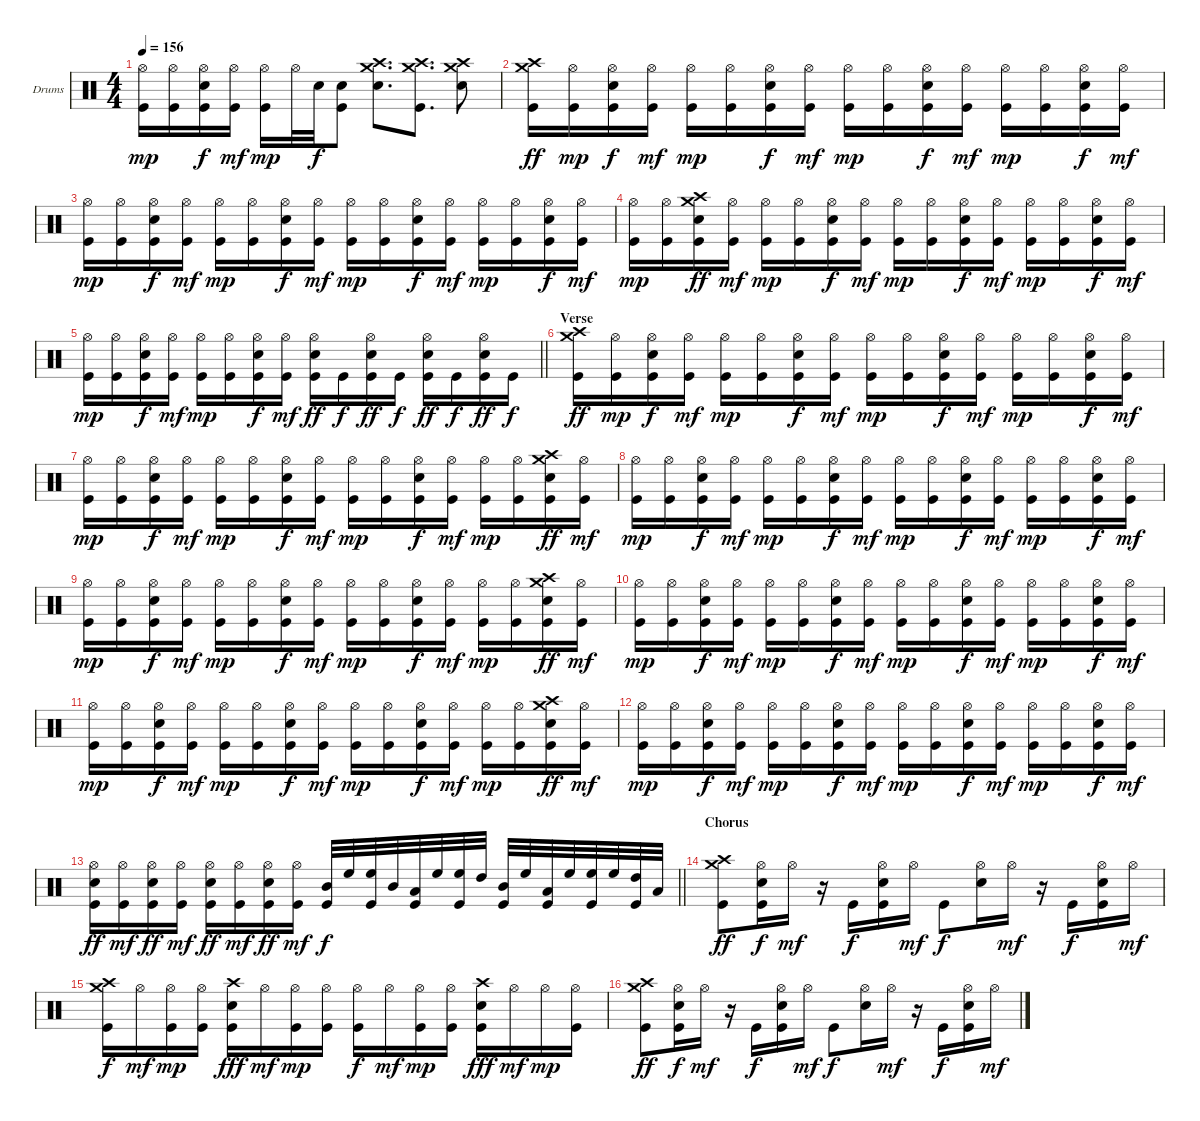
\bracketExtendMode groupsimilarinstruments
\firstSystemTrackNameOrientation horizontal
\otherSystemsTrackNameOrientation horizontal
\track ("Drums" "Drums") {instrument percussion}
\staff {score}
\articulation defaults
\ts (4 4)
\tempo 156
\clef neutral
\ks c
("Hi-Hat (open)" "Kick (hit)").16{dy mp} ("Hi-Hat (open)" "Kick (hit)").16 ("Hi-Hat (open)" "Snare (hit) 2" "Kick (hit)").16{dy f} ("Hi-Hat (open)" "Kick (hit)").16{dy mf} ("Hi-Hat (open)" "Kick (hit)").16{dy mp} "Hi-Hat (open)".32 "Snare (hit) 2".32{dy f} ("Snare (hit) 2" "Kick (hit)").8 ("Crash medium (hit)" "Crash high (hit)" "Snare (hit) 2").8{d} ("Crash medium (hit)" "Crash high (hit)" "Kick (hit)").8{d} ("Crash medium (hit)" "Crash high (hit)" "Snare (hit) 2").8 |
("Crash medium (hit)" "Crash high (hit)" "Kick (hit)").16{dy ff} ("Hi-Hat (open)" "Kick (hit)").16{dy mp} ("Hi-Hat (open)" "Snare (hit) 2" "Kick (hit)").16{dy f} ("Hi-Hat (open)" "Kick (hit)").16{dy mf} ("Hi-Hat (open)" "Kick (hit)").16{dy mp} ("Hi-Hat (open)" "Kick (hit)").16 ("Hi-Hat (open)" "Snare (hit) 2" "Kick (hit)").16{dy f} ("Hi-Hat (open)" "Kick (hit)").16{dy mf} ("Hi-Hat (open)" "Kick (hit)").16{dy mp} ("Hi-Hat (open)" "Kick (hit)").16 ("Hi-Hat (open)" "Snare (hit) 2" "Kick (hit)").16{dy f} ("Hi-Hat (open)" "Kick (hit)").16{dy mf} ("Hi-Hat (open)" "Kick (hit)").16{dy mp} ("Hi-Hat (open)" "Kick (hit)").16 ("Hi-Hat (open)" "Snare (hit) 2" "Kick (hit)").16{dy f} ("Hi-Hat (open)" "Kick (hit)").16{dy mf} |
("Hi-Hat (open)" "Kick (hit)").16{dy mp} ("Hi-Hat (open)" "Kick (hit)").16 ("Hi-Hat (open)" "Snare (hit) 2" "Kick (hit)").16{dy f} ("Hi-Hat (open)" "Kick (hit)").16{dy mf} ("Hi-Hat (open)" "Kick (hit)").16{dy mp} ("Hi-Hat (open)" "Kick (hit)").16 ("Hi-Hat (open)" "Snare (hit) 2" "Kick (hit)").16{dy f} ("Hi-Hat (open)" "Kick (hit)").16{dy mf} ("Hi-Hat (open)" "Kick (hit)").16{dy mp} ("Hi-Hat (open)" "Kick (hit)").16 ("Hi-Hat (open)" "Snare (hit) 2" "Kick (hit)").16{dy f} ("Hi-Hat (open)" "Kick (hit)").16{dy mf} ("Hi-Hat (open)" "Kick (hit)").16{dy mp} ("Hi-Hat (open)" "Kick (hit)").16 ("Hi-Hat (open)" "Snare (hit) 2" "Kick (hit)").16{dy f} ("Hi-Hat (open)" "Kick (hit)").16{dy mf} |
("Hi-Hat (open)" "Kick (hit)").16{dy mp} ("Hi-Hat (open)" "Kick (hit)").16 ("Crash medium (hit)" "Crash high (hit)" "Snare (hit) 2" "Kick (hit)").16{dy ff} ("Hi-Hat (open)" "Kick (hit)").16{dy mf} ("Hi-Hat (open)" "Kick (hit)").16{dy mp} ("Hi-Hat (open)" "Kick (hit)").16 ("Hi-Hat (open)" "Snare (hit) 2" "Kick (hit)").16{dy f} ("Hi-Hat (open)" "Kick (hit)").16{dy mf} ("Hi-Hat (open)" "Kick (hit)").16{dy mp} ("Hi-Hat (open)" "Kick (hit)").16 ("Hi-Hat (open)" "Snare (hit) 2" "Kick (hit)").16{dy f} ("Hi-Hat (open)" "Kick (hit)").16{dy mf} ("Hi-Hat (open)" "Kick (hit)").16{dy mp} ("Hi-Hat (open)" "Kick (hit)").16 ("Hi-Hat (open)" "Snare (hit) 2" "Kick (hit)").16{dy f} ("Hi-Hat (open)" "Kick (hit)").16{dy mf} |
\barLineRight lightlight
("Hi-Hat (open)" "Kick (hit)").16{dy mp} ("Hi-Hat (open)" "Kick (hit)").16 ("Hi-Hat (open)" "Snare (hit) 2" "Kick (hit)").16{dy f} ("Hi-Hat (open)" "Kick (hit)").16{dy mf} ("Hi-Hat (open)" "Kick (hit)").16{dy mp} ("Hi-Hat (open)" "Kick (hit)").16 ("Hi-Hat (open)" "Snare (hit) 2" "Kick (hit)").16{dy f} ("Hi-Hat (open)" "Kick (hit)").16{dy mf} ("Hi-Hat (open)" "Snare (hit) 2" "Kick (hit)").16{dy ff} "Kick (hit)".16{dy f} ("Hi-Hat (open)" "Snare (hit) 2" "Kick (hit)").16{dy ff} "Kick (hit)".16{dy f} ("Hi-Hat (open)" "Snare (hit) 2" "Kick (hit)").16{dy ff} "Kick (hit)".16{dy f} ("Hi-Hat (open)" "Snare (hit) 2" "Kick (hit)").16{dy ff} "Kick (hit)".16{dy f} |
\section ("" "Verse")
("Crash medium (hit)" "Crash high (hit)" "Kick (hit)").16{dy ff} ("Hi-Hat (open)" "Kick (hit)").16{dy mp} ("Hi-Hat (open)" "Snare (hit) 2" "Kick (hit)").16{dy f} ("Hi-Hat (open)" "Kick (hit)").16{dy mf} ("Hi-Hat (open)" "Kick (hit)").16{dy mp} ("Hi-Hat (open)" "Kick (hit)").16 ("Hi-Hat (open)" "Snare (hit) 2" "Kick (hit)").16{dy f} ("Hi-Hat (open)" "Kick (hit)").16{dy mf} ("Hi-Hat (open)" "Kick (hit)").16{dy mp} ("Hi-Hat (open)" "Kick (hit)").16 ("Hi-Hat (open)" "Snare (hit) 2" "Kick (hit)").16{dy f} ("Hi-Hat (open)" "Kick (hit)").16{dy mf} ("Hi-Hat (open)" "Kick (hit)").16{dy mp} ("Hi-Hat (open)" "Kick (hit)").16 ("Hi-Hat (open)" "Snare (hit) 2" "Kick (hit)").16{dy f} ("Hi-Hat (open)" "Kick (hit)").16{dy mf} |
("Hi-Hat (open)" "Kick (hit)").16{dy mp} ("Hi-Hat (open)" "Kick (hit)").16 ("Hi-Hat (open)" "Snare (hit) 2" "Kick (hit)").16{dy f} ("Hi-Hat (open)" "Kick (hit)").16{dy mf} ("Hi-Hat (open)" "Kick (hit)").16{dy mp} ("Hi-Hat (open)" "Kick (hit)").16 ("Hi-Hat (open)" "Snare (hit) 2" "Kick (hit)").16{dy f} ("Hi-Hat (open)" "Kick (hit)").16{dy mf} ("Hi-Hat (open)" "Kick (hit)").16{dy mp} ("Hi-Hat (open)" "Kick (hit)").16 ("Hi-Hat (open)" "Snare (hit) 2" "Kick (hit)").16{dy f} ("Hi-Hat (open)" "Kick (hit)").16{dy mf} ("Hi-Hat (open)" "Kick (hit)").16{dy mp} ("Hi-Hat (open)" "Kick (hit)").16 ("Crash medium (hit)" "Crash high (hit)" "Snare (hit) 2" "Kick (hit)").16{dy ff} ("Hi-Hat (open)" "Kick (hit)").16{dy mf} |
("Hi-Hat (open)" "Kick (hit)").16{dy mp} ("Hi-Hat (open)" "Kick (hit)").16 ("Hi-Hat (open)" "Snare (hit) 2" "Kick (hit)").16{dy f} ("Hi-Hat (open)" "Kick (hit)").16{dy mf} ("Hi-Hat (open)" "Kick (hit)").16{dy mp} ("Hi-Hat (open)" "Kick (hit)").16 ("Hi-Hat (open)" "Snare (hit) 2" "Kick (hit)").16{dy f} ("Hi-Hat (open)" "Kick (hit)").16{dy mf} ("Hi-Hat (open)" "Kick (hit)").16{dy mp} ("Hi-Hat (open)" "Kick (hit)").16 ("Hi-Hat (open)" "Snare (hit) 2" "Kick (hit)").16{dy f} ("Hi-Hat (open)" "Kick (hit)").16{dy mf} ("Hi-Hat (open)" "Kick (hit)").16{dy mp} ("Hi-Hat (open)" "Kick (hit)").16 ("Hi-Hat (open)" "Snare (hit) 2" "Kick (hit)").16{dy f} ("Hi-Hat (open)" "Kick (hit)").16{dy mf} |
("Hi-Hat (open)" "Kick (hit)").16{dy mp} ("Hi-Hat (open)" "Kick (hit)").16 ("Hi-Hat (open)" "Snare (hit) 2" "Kick (hit)").16{dy f} ("Hi-Hat (open)" "Kick (hit)").16{dy mf} ("Hi-Hat (open)" "Kick (hit)").16{dy mp} ("Hi-Hat (open)" "Kick (hit)").16 ("Hi-Hat (open)" "Snare (hit) 2" "Kick (hit)").16{dy f} ("Hi-Hat (open)" "Kick (hit)").16{dy mf} ("Hi-Hat (open)" "Kick (hit)").16{dy mp} ("Hi-Hat (open)" "Kick (hit)").16 ("Hi-Hat (open)" "Snare (hit) 2" "Kick (hit)").16{dy f} ("Hi-Hat (open)" "Kick (hit)").16{dy mf} ("Hi-Hat (open)" "Kick (hit)").16{dy mp} ("Hi-Hat (open)" "Kick (hit)").16 ("Crash medium (hit)" "Crash high (hit)" "Snare (hit) 2" "Kick (hit)").16{dy ff} ("Hi-Hat (open)" "Kick (hit)").16{dy mf} |
("Hi-Hat (open)" "Kick (hit)").16{dy mp} ("Hi-Hat (open)" "Kick (hit)").16 ("Hi-Hat (open)" "Snare (hit) 2" "Kick (hit)").16{dy f} ("Hi-Hat (open)" "Kick (hit)").16{dy mf} ("Hi-Hat (open)" "Kick (hit)").16{dy mp} ("Hi-Hat (open)" "Kick (hit)").16 ("Hi-Hat (open)" "Snare (hit) 2" "Kick (hit)").16{dy f} ("Hi-Hat (open)" "Kick (hit)").16{dy mf} ("Hi-Hat (open)" "Kick (hit)").16{dy mp} ("Hi-Hat (open)" "Kick (hit)").16 ("Hi-Hat (open)" "Snare (hit) 2" "Kick (hit)").16{dy f} ("Hi-Hat (open)" "Kick (hit)").16{dy mf} ("Hi-Hat (open)" "Kick (hit)").16{dy mp} ("Hi-Hat (open)" "Kick (hit)").16 ("Hi-Hat (open)" "Snare (hit) 2" "Kick (hit)").16{dy f} ("Hi-Hat (open)" "Kick (hit)").16{dy mf} |
("Hi-Hat (open)" "Kick (hit)").16{dy mp} ("Hi-Hat (open)" "Kick (hit)").16 ("Hi-Hat (open)" "Snare (hit) 2" "Kick (hit)").16{dy f} ("Hi-Hat (open)" "Kick (hit)").16{dy mf} ("Hi-Hat (open)" "Kick (hit)").16{dy mp} ("Hi-Hat (open)" "Kick (hit)").16 ("Hi-Hat (open)" "Snare (hit) 2" "Kick (hit)").16{dy f} ("Hi-Hat (open)" "Kick (hit)").16{dy mf} ("Hi-Hat (open)" "Kick (hit)").16{dy mp} ("Hi-Hat (open)" "Kick (hit)").16 ("Hi-Hat (open)" "Snare (hit) 2" "Kick (hit)").16{dy f} ("Hi-Hat (open)" "Kick (hit)").16{dy mf} ("Hi-Hat (open)" "Kick (hit)").16{dy mp} ("Hi-Hat (open)" "Kick (hit)").16 ("Crash medium (hit)" "Crash high (hit)" "Snare (hit) 2" "Kick (hit)").16{dy ff} ("Hi-Hat (open)" "Kick (hit)").16{dy mf} |
("Hi-Hat (open)" "Kick (hit)").16{dy mp} ("Hi-Hat (open)" "Kick (hit)").16 ("Hi-Hat (open)" "Snare (hit) 2" "Kick (hit)").16{dy f} ("Hi-Hat (open)" "Kick (hit)").16{dy mf} ("Hi-Hat (open)" "Kick (hit)").16{dy mp} ("Hi-Hat (open)" "Kick (hit)").16 ("Hi-Hat (open)" "Snare (hit) 2" "Kick (hit)").16{dy f} ("Hi-Hat (open)" "Kick (hit)").16{dy mf} ("Hi-Hat (open)" "Kick (hit)").16{dy mp} ("Hi-Hat (open)" "Kick (hit)").16 ("Hi-Hat (open)" "Snare (hit) 2" "Kick (hit)").16{dy f} ("Hi-Hat (open)" "Kick (hit)").16{dy mf} ("Hi-Hat (open)" "Kick (hit)").16{dy mp} ("Hi-Hat (open)" "Kick (hit)").16 ("Hi-Hat (open)" "Snare (hit) 2" "Kick (hit)").16{dy f} ("Hi-Hat (open)" "Kick (hit)").16{dy mf} |
\barLineRight lightlight
("Hi-Hat (open)" "Snare (hit) 2" "Kick (hit)").16{dy ff} ("Hi-Hat (open)" "Kick (hit)").16{dy mf} ("Hi-Hat (open)" "Snare (hit) 2" "Kick (hit)").16{dy ff} ("Hi-Hat (open)" "Kick (hit)").16{dy mf} ("Hi-Hat (open)" "Snare (hit) 2" "Kick (hit)").16{dy ff} ("Hi-Hat (open)" "Kick (hit)").16{dy mf} ("Hi-Hat (open)" "Snare (hit) 2" "Kick (hit)").16{dy ff} ("Hi-Hat (open)" "Kick (hit)").16{dy mf} ("Mid Tom (hit)" "Kick (hit)").32{dy f} "High Floor Tom (hit)".32 ("High Floor Tom (hit)" "Kick (hit)").32 "Mid Tom (hit)".32 ("Low Tom (hit)" "Kick (hit)").32 "High Floor Tom (hit)".32 ("High Floor Tom (hit)" "Kick (hit)").32 "High Tom (hit)".32 ("Mid Tom (hit)" "Kick (hit)").32 "High Floor Tom (hit)".32 ("Low Tom (hit)" "Kick (hit)").32 "High Floor Tom (hit)".32 ("High Floor Tom (hit)" "Kick (hit)").32 "High Floor Tom (hit)".32 ("High Tom (hit)" "Kick (hit)").32 "Low Tom (hit)".32 |
\section ("" "Chorus")
("Crash medium (hit)" "Crash high (hit)" "Kick (hit)").8{dy ff} ("Hi-Hat (open)" "Snare (hit) 2" "Kick (hit)").16{dy f} "Hi-Hat (open)".16{dy mf} r.16 "Kick (hit)".16{dy f} ("Hi-Hat (open)" "Snare (hit) 2" "Kick (hit)").16 "Hi-Hat (open)".16{dy mf} "Kick (hit)".8{dy f} ("Hi-Hat (open)" "Snare (hit) 2").16 "Hi-Hat (open)".16{dy mf} r.16 "Kick (hit)".16{dy f} ("Hi-Hat (open)" "Snare (hit) 2" "Kick (hit)").16 "Hi-Hat (open)".16{dy mf} |
("Crash medium (hit)" "Crash high (hit)" "Kick (hit)").16{dy f} "Hi-Hat (open)".16{dy mf} ("Hi-Hat (open)" "Kick (hit)").16{dy mp} ("Hi-Hat (open)" "Kick (hit)").16 ("Crash high (hit)" "Snare (hit) 2" "Kick (hit)").16{dy fff} "Hi-Hat (open)".16{dy mf} ("Hi-Hat (open)" "Kick (hit)").16{dy mp} ("Hi-Hat (open)" "Kick (hit)").16 ("Hi-Hat (open)" "Kick (hit)").16{dy f} "Hi-Hat (open)".16{dy mf} ("Hi-Hat (open)" "Kick (hit)").16{dy mp} ("Hi-Hat (open)" "Kick (hit)").16 ("Crash high (hit)" "Snare (hit) 2" "Kick (hit)").16{dy fff} "Hi-Hat (open)".16{dy mf} "Hi-Hat (open)".16{dy mp} ("Hi-Hat (open)" "Kick (hit)").16 |
("Crash medium (hit)" "Crash high (hit)" "Kick (hit)").8{dy ff} ("Hi-Hat (open)" "Snare (hit) 2" "Kick (hit)").16{dy f} "Hi-Hat (open)".16{dy mf} r.16 "Kick (hit)".16{dy f} ("Hi-Hat (open)" "Snare (hit) 2" "Kick (hit)").16 "Hi-Hat (open)".16{dy mf} "Kick (hit)".8{dy f} ("Hi-Hat (open)" "Snare (hit) 2").16 "Hi-Hat (open)".16{dy mf} r.16 "Kick (hit)".16{dy f} ("Hi-Hat (open)" "Snare (hit) 2" "Kick (hit)").16 "Hi-Hat (open)".16{dy mf}
